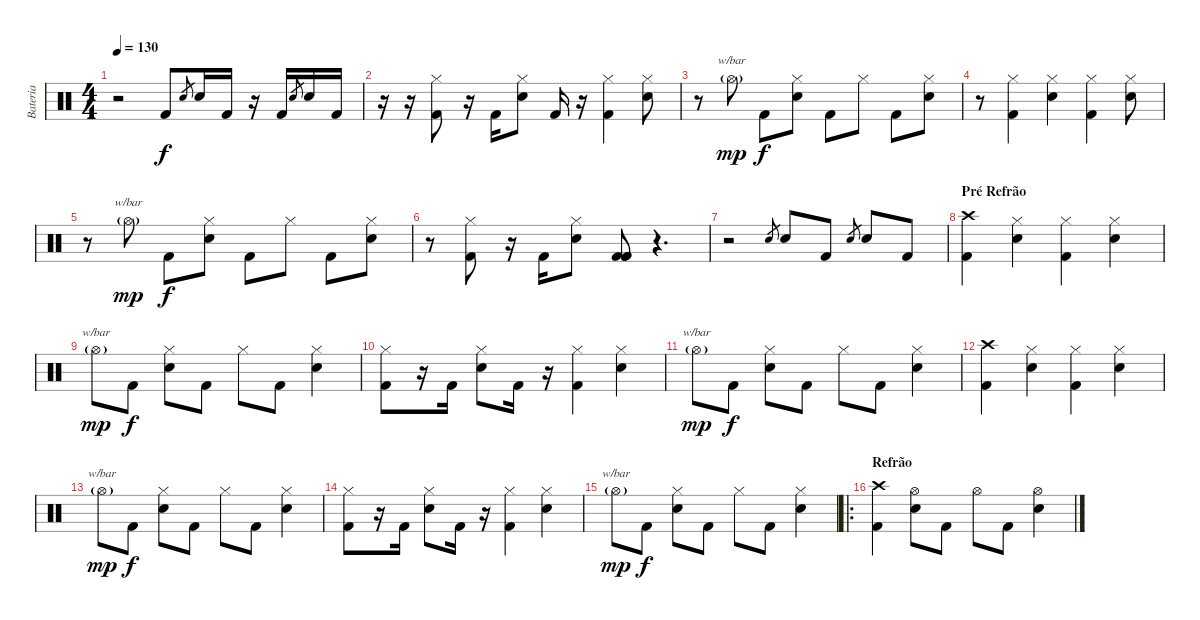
\track ("Bateria" "Bateria") {instrument percussion}
\staff {score}
\articulation defaults
\ts (4 4)
\tempo 130
\clef neutral
\ks c
r.2{dy f} "Kick (hit) 2".8 "Electric Snare (hit)".8{gr} "Electric Snare (hit)".16 "Kick (hit) 2".16 r.16 "Kick (hit) 2".16 "Electric Snare (hit)".8{gr} "Electric Snare (hit)".16 "Kick (hit) 2".16 |
r.16 r.16 ("Hi-Hat (closed)" "Kick (hit) 2").8 r.16 "Kick (hit) 2".16 ("Hi-Hat (closed)" "Electric Snare (hit)").8 "Kick (hit) 2".16 r.16 ("Hi-Hat (closed)" "Kick (hit) 2").4 ("Hi-Hat (closed)" "Electric Snare (hit)").8 |
r.8 "Hi-Hat (open)"{g}.8{tbe (custom default 0 0 45 2 60 2) dy mp} "Kick (hit) 2".8{dy f} ("Hi-Hat (closed)" "Electric Snare (hit)").8 "Kick (hit) 2".8 "Hi-Hat (closed)".8 "Kick (hit) 2".8 ("Hi-Hat (closed)" "Electric Snare (hit)").8 |
r.8 ("Hi-Hat (closed)" "Kick (hit) 2").4 ("Hi-Hat (closed)" "Electric Snare (hit)").4 ("Hi-Hat (closed)" "Kick (hit) 2").4 ("Hi-Hat (closed)" "Electric Snare (hit)").8 |
r.8 "Hi-Hat (open)"{g}.8{tbe (custom default 0 0 45 2 60 2) dy mp} "Kick (hit) 2".8{dy f} ("Hi-Hat (closed)" "Electric Snare (hit)").8 "Kick (hit) 2".8 "Hi-Hat (closed)".8 "Kick (hit) 2".8 ("Hi-Hat (closed)" "Electric Snare (hit)").8 |
r.8 ("Hi-Hat (closed)" "Kick (hit) 2").8 r.16 "Kick (hit) 2".16 ("Hi-Hat (closed)" "Electric Snare (hit)").8 ("Kick (hit) 2" "Kick (hit) 2" "Kick (hit) 2").8 r.4{d} |
r.2 "Electric Snare (hit)".8{gr} "Electric Snare (hit)".8 "Kick (hit) 2".8 "Electric Snare (hit)".8{gr} "Electric Snare (hit)".8 "Kick (hit) 2".8 |
\section ("" "Pré Refrão")
("Crash high (hit)" "Kick (hit) 2").4 ("Hi-Hat (closed)" "Electric Snare (hit)").4 ("Hi-Hat (closed)" "Kick (hit) 2").4 ("Hi-Hat (closed)" "Electric Snare (hit)").4 |
"Hi-Hat (open)"{g}.8{tbe (custom default 0 0 45 2 60 2) dy mp} "Kick (hit) 2".8{dy f} ("Hi-Hat (closed)" "Electric Snare (hit)").8 "Kick (hit) 2".8 "Hi-Hat (closed)".8 "Kick (hit) 2".8 ("Hi-Hat (closed)" "Electric Snare (hit)").4 |
("Hi-Hat (closed)" "Kick (hit) 2").8 r.16 "Kick (hit) 2".16 ("Hi-Hat (closed)" "Electric Snare (hit)").8 "Kick (hit) 2".16 r.16 ("Hi-Hat (closed)" "Kick (hit) 2").4 ("Hi-Hat (closed)" "Electric Snare (hit)").4 |
"Hi-Hat (open)"{g}.8{tbe (custom default 0 0 45 2 60 2) dy mp} "Kick (hit) 2".8{dy f} ("Hi-Hat (closed)" "Electric Snare (hit)").8 "Kick (hit) 2".8 "Hi-Hat (closed)".8 "Kick (hit) 2".8 ("Hi-Hat (closed)" "Electric Snare (hit)").4 |
("Crash high (hit)" "Kick (hit) 2").4 ("Hi-Hat (closed)" "Electric Snare (hit)").4 ("Hi-Hat (closed)" "Kick (hit) 2").4 ("Hi-Hat (closed)" "Electric Snare (hit)").4 |
"Hi-Hat (open)"{g}.8{tbe (custom default 0 0 45 2 60 2) dy mp} "Kick (hit) 2".8{dy f} ("Hi-Hat (closed)" "Electric Snare (hit)").8 "Kick (hit) 2".8 "Hi-Hat (closed)".8 "Kick (hit) 2".8 ("Hi-Hat (closed)" "Electric Snare (hit)").4 |
("Hi-Hat (closed)" "Kick (hit) 2").8 r.16 "Kick (hit) 2".16 ("Hi-Hat (closed)" "Electric Snare (hit)").8 "Kick (hit) 2".16 r.16 ("Hi-Hat (closed)" "Kick (hit) 2").4 ("Hi-Hat (closed)" "Electric Snare (hit)").4 |
"Hi-Hat (open)"{g}.8{tbe (custom default 0 0 45 2 60 2) dy mp} "Kick (hit) 2".8{dy f} ("Hi-Hat (closed)" "Electric Snare (hit)").8 "Kick (hit) 2".8 "Hi-Hat (closed)".8 "Kick (hit) 2".8 ("Hi-Hat (closed)" "Electric Snare (hit)").4 |
\ro
\section ("" "Refrão")
("Crash high (hit)" "Kick (hit) 2").4 ("Hi-Hat (open)" "Electric Snare (hit)").8 "Kick (hit) 2".8 "Hi-Hat (open)".8 "Kick (hit) 2".8 ("Hi-Hat (open)" "Electric Snare (hit)").4
